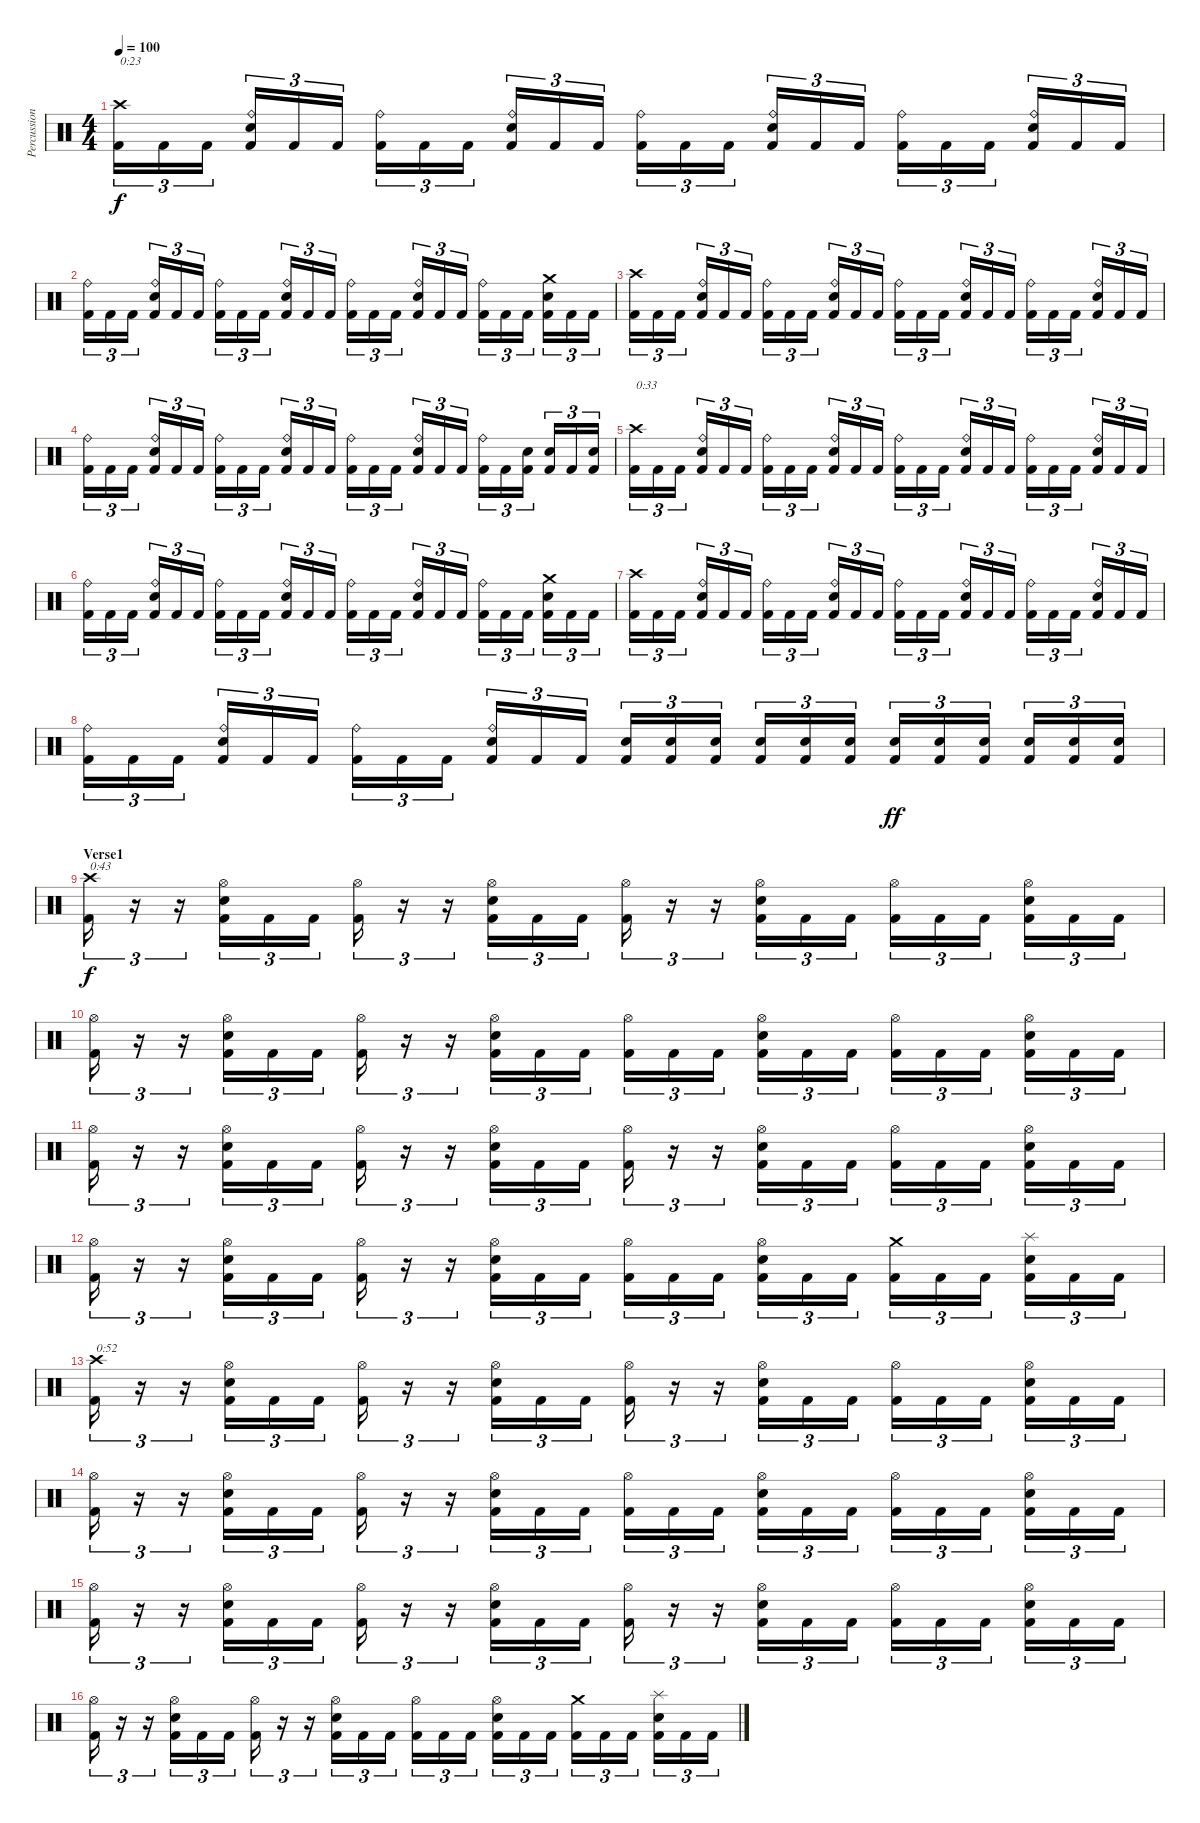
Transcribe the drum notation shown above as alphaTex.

\track ("Percussion" "Percussion") {instrument percussion}
\staff {score}
\articulation defaults
\ts (4 4)
\tempo 100
\clef neutral
\ks c
("Crash high (hit)" "Kick (hit) 2").16{tu (3 2) txt "0:23" dy f} "Kick (hit) 2".16{tu (3 2)} "Kick (hit) 2".16{tu (3 2)} ("Ride (bell)" "Snare (hit) 2" "Kick (hit) 2").16{tu (3 2)} "Kick (hit) 2".16{tu (3 2)} "Kick (hit) 2".16{tu (3 2)} ("Ride (bell)" "Kick (hit) 2").16{tu (3 2)} "Kick (hit) 2".16{tu (3 2)} "Kick (hit) 2".16{tu (3 2)} ("Ride (bell)" "Snare (hit) 2" "Kick (hit) 2").16{tu (3 2)} "Kick (hit) 2".16{tu (3 2)} "Kick (hit) 2".16{tu (3 2)} ("Ride (bell)" "Kick (hit) 2").16{tu (3 2)} "Kick (hit) 2".16{tu (3 2)} "Kick (hit) 2".16{tu (3 2)} ("Ride (bell)" "Snare (hit) 2" "Kick (hit) 2").16{tu (3 2)} "Kick (hit) 2".16{tu (3 2)} "Kick (hit) 2".16{tu (3 2)} ("Ride (bell)" "Kick (hit) 2").16{tu (3 2)} "Kick (hit) 2".16{tu (3 2)} "Kick (hit) 2".16{tu (3 2)} ("Ride (bell)" "Snare (hit) 2" "Kick (hit) 2").16{tu (3 2)} "Kick (hit) 2".16{tu (3 2)} "Kick (hit) 2".16{tu (3 2)} |
("Ride (bell)" "Kick (hit) 2").16{tu (3 2)} "Kick (hit) 2".16{tu (3 2)} "Kick (hit) 2".16{tu (3 2)} ("Ride (bell)" "Snare (hit) 2" "Kick (hit) 2").16{tu (3 2)} "Kick (hit) 2".16{tu (3 2)} "Kick (hit) 2".16{tu (3 2)} ("Ride (bell)" "Kick (hit) 2").16{tu (3 2)} "Kick (hit) 2".16{tu (3 2)} "Kick (hit) 2".16{tu (3 2)} ("Ride (bell)" "Snare (hit) 2" "Kick (hit) 2").16{tu (3 2)} "Kick (hit) 2".16{tu (3 2)} "Kick (hit) 2".16{tu (3 2)} ("Ride (bell)" "Kick (hit) 2").16{tu (3 2)} "Kick (hit) 2".16{tu (3 2)} "Kick (hit) 2".16{tu (3 2)} ("Ride (bell)" "Snare (hit) 2" "Kick (hit) 2").16{tu (3 2)} "Kick (hit) 2".16{tu (3 2)} "Kick (hit) 2".16{tu (3 2)} ("Ride (bell)" "Kick (hit) 2").16{tu (3 2)} "Kick (hit) 2".16{tu (3 2)} "Kick (hit) 2".16{tu (3 2)} ("Crash medium (hit)" "Snare (hit) 2" "Kick (hit) 2").16{tu (3 2)} "Kick (hit) 2".16{tu (3 2)} "Kick (hit) 2".16{tu (3 2)} |
("Crash high (hit)" "Kick (hit) 2").16{tu (3 2)} "Kick (hit) 2".16{tu (3 2)} "Kick (hit) 2".16{tu (3 2)} ("Ride (bell)" "Snare (hit) 2" "Kick (hit) 2").16{tu (3 2)} "Kick (hit) 2".16{tu (3 2)} "Kick (hit) 2".16{tu (3 2)} ("Ride (bell)" "Kick (hit) 2").16{tu (3 2)} "Kick (hit) 2".16{tu (3 2)} "Kick (hit) 2".16{tu (3 2)} ("Ride (bell)" "Snare (hit) 2" "Kick (hit) 2").16{tu (3 2)} "Kick (hit) 2".16{tu (3 2)} "Kick (hit) 2".16{tu (3 2)} ("Ride (bell)" "Kick (hit) 2").16{tu (3 2)} "Kick (hit) 2".16{tu (3 2)} "Kick (hit) 2".16{tu (3 2)} ("Ride (bell)" "Snare (hit) 2" "Kick (hit) 2").16{tu (3 2)} "Kick (hit) 2".16{tu (3 2)} "Kick (hit) 2".16{tu (3 2)} ("Ride (bell)" "Kick (hit) 2").16{tu (3 2)} "Kick (hit) 2".16{tu (3 2)} "Kick (hit) 2".16{tu (3 2)} ("Ride (bell)" "Snare (hit) 2" "Kick (hit) 2").16{tu (3 2)} "Kick (hit) 2".16{tu (3 2)} "Kick (hit) 2".16{tu (3 2)} |
("Ride (bell)" "Kick (hit) 2").16{tu (3 2)} "Kick (hit) 2".16{tu (3 2)} "Kick (hit) 2".16{tu (3 2)} ("Ride (bell)" "Snare (hit) 2" "Kick (hit) 2").16{tu (3 2)} "Kick (hit) 2".16{tu (3 2)} "Kick (hit) 2".16{tu (3 2)} ("Ride (bell)" "Kick (hit) 2").16{tu (3 2)} "Kick (hit) 2".16{tu (3 2)} "Kick (hit) 2".16{tu (3 2)} ("Ride (bell)" "Snare (hit) 2" "Kick (hit) 2").16{tu (3 2)} "Kick (hit) 2".16{tu (3 2)} "Kick (hit) 2".16{tu (3 2)} ("Ride (bell)" "Kick (hit) 2").16{tu (3 2)} "Kick (hit) 2".16{tu (3 2)} "Kick (hit) 2".16{tu (3 2)} ("Ride (bell)" "Snare (hit) 2" "Kick (hit) 2").16{tu (3 2)} "Kick (hit) 2".16{tu (3 2)} "Kick (hit) 2".16{tu (3 2)} ("Ride (bell)" "Kick (hit) 2").16{tu (3 2)} "Kick (hit) 2".16{tu (3 2)} ("Snare (hit) 2" "Kick (hit) 2").16{tu (3 2)} ("Snare (hit) 2" "Kick (hit) 2").16{tu (3 2)} "Kick (hit) 2".16{tu (3 2)} ("Snare (hit) 2" "Kick (hit) 2").16{tu (3 2)} |
("Crash high (hit)" "Kick (hit) 2").16{tu (3 2) txt "0:33"} "Kick (hit) 2".16{tu (3 2)} "Kick (hit) 2".16{tu (3 2)} ("Ride (bell)" "Snare (hit) 2" "Kick (hit) 2").16{tu (3 2)} "Kick (hit) 2".16{tu (3 2)} "Kick (hit) 2".16{tu (3 2)} ("Ride (bell)" "Kick (hit) 2").16{tu (3 2)} "Kick (hit) 2".16{tu (3 2)} "Kick (hit) 2".16{tu (3 2)} ("Ride (bell)" "Snare (hit) 2" "Kick (hit) 2").16{tu (3 2)} "Kick (hit) 2".16{tu (3 2)} "Kick (hit) 2".16{tu (3 2)} ("Ride (bell)" "Kick (hit) 2").16{tu (3 2)} "Kick (hit) 2".16{tu (3 2)} "Kick (hit) 2".16{tu (3 2)} ("Ride (bell)" "Snare (hit) 2" "Kick (hit) 2").16{tu (3 2)} "Kick (hit) 2".16{tu (3 2)} "Kick (hit) 2".16{tu (3 2)} ("Ride (bell)" "Kick (hit) 2").16{tu (3 2)} "Kick (hit) 2".16{tu (3 2)} "Kick (hit) 2".16{tu (3 2)} ("Ride (bell)" "Snare (hit) 2" "Kick (hit) 2").16{tu (3 2)} "Kick (hit) 2".16{tu (3 2)} "Kick (hit) 2".16{tu (3 2)} |
("Ride (bell)" "Kick (hit) 2").16{tu (3 2)} "Kick (hit) 2".16{tu (3 2)} "Kick (hit) 2".16{tu (3 2)} ("Ride (bell)" "Snare (hit) 2" "Kick (hit) 2").16{tu (3 2)} "Kick (hit) 2".16{tu (3 2)} "Kick (hit) 2".16{tu (3 2)} ("Ride (bell)" "Kick (hit) 2").16{tu (3 2)} "Kick (hit) 2".16{tu (3 2)} "Kick (hit) 2".16{tu (3 2)} ("Ride (bell)" "Snare (hit) 2" "Kick (hit) 2").16{tu (3 2)} "Kick (hit) 2".16{tu (3 2)} "Kick (hit) 2".16{tu (3 2)} ("Ride (bell)" "Kick (hit) 2").16{tu (3 2)} "Kick (hit) 2".16{tu (3 2)} "Kick (hit) 2".16{tu (3 2)} ("Ride (bell)" "Snare (hit) 2" "Kick (hit) 2").16{tu (3 2)} "Kick (hit) 2".16{tu (3 2)} "Kick (hit) 2".16{tu (3 2)} ("Ride (bell)" "Kick (hit) 2").16{tu (3 2)} "Kick (hit) 2".16{tu (3 2)} "Kick (hit) 2".16{tu (3 2)} ("Crash medium (hit)" "Snare (hit) 2" "Kick (hit) 2").16{tu (3 2)} "Kick (hit) 2".16{tu (3 2)} "Kick (hit) 2".16{tu (3 2)} |
("Crash high (hit)" "Kick (hit) 2").16{tu (3 2)} "Kick (hit) 2".16{tu (3 2)} "Kick (hit) 2".16{tu (3 2)} ("Ride (bell)" "Snare (hit) 2" "Kick (hit) 2").16{tu (3 2)} "Kick (hit) 2".16{tu (3 2)} "Kick (hit) 2".16{tu (3 2)} ("Ride (bell)" "Kick (hit) 2").16{tu (3 2)} "Kick (hit) 2".16{tu (3 2)} "Kick (hit) 2".16{tu (3 2)} ("Ride (bell)" "Snare (hit) 2" "Kick (hit) 2").16{tu (3 2)} "Kick (hit) 2".16{tu (3 2)} "Kick (hit) 2".16{tu (3 2)} ("Ride (bell)" "Kick (hit) 2").16{tu (3 2)} "Kick (hit) 2".16{tu (3 2)} "Kick (hit) 2".16{tu (3 2)} ("Ride (bell)" "Snare (hit) 2" "Kick (hit) 2").16{tu (3 2)} "Kick (hit) 2".16{tu (3 2)} "Kick (hit) 2".16{tu (3 2)} ("Ride (bell)" "Kick (hit) 2").16{tu (3 2)} "Kick (hit) 2".16{tu (3 2)} "Kick (hit) 2".16{tu (3 2)} ("Ride (bell)" "Snare (hit) 2" "Kick (hit) 2").16{tu (3 2)} "Kick (hit) 2".16{tu (3 2)} "Kick (hit) 2".16{tu (3 2)} |
("Ride (bell)" "Kick (hit) 2").16{tu (3 2)} "Kick (hit) 2".16{tu (3 2)} "Kick (hit) 2".16{tu (3 2)} ("Ride (bell)" "Snare (hit) 2" "Kick (hit) 2").16{tu (3 2)} "Kick (hit) 2".16{tu (3 2)} "Kick (hit) 2".16{tu (3 2)} ("Ride (bell)" "Kick (hit) 2").16{tu (3 2)} "Kick (hit) 2".16{tu (3 2)} "Kick (hit) 2".16{tu (3 2)} ("Ride (bell)" "Snare (hit) 2" "Kick (hit) 2").16{tu (3 2)} "Kick (hit) 2".16{tu (3 2)} "Kick (hit) 2".16{tu (3 2)} ("Snare (hit) 2" "Kick (hit) 2").16{tu (3 2)} ("Snare (hit) 2" "Kick (hit) 2").16{tu (3 2)} ("Snare (hit) 2" "Kick (hit) 2").16{tu (3 2)} ("Snare (hit) 2" "Kick (hit) 2").16{tu (3 2)} ("Snare (hit) 2" "Kick (hit) 2").16{tu (3 2)} ("Snare (hit) 2" "Kick (hit) 2").16{tu (3 2)} ("Snare (hit) 2" "Kick (hit) 2").16{tu (3 2) dy ff} ("Snare (hit) 2" "Kick (hit) 2").16{tu (3 2)} ("Snare (hit) 2" "Kick (hit) 2").16{tu (3 2)} ("Snare (hit) 2" "Kick (hit) 2").16{tu (3 2)} ("Snare (hit) 2" "Kick (hit) 2").16{tu (3 2)} ("Snare (hit) 2" "Kick (hit) 2").16{tu (3 2)} |
\section ("" "Verse1")
("Crash high (hit)" "Kick (hit) 2").16{tu (3 2) txt "0:43" dy f} r.16{tu (3 2)} r.16{tu (3 2)} ("Hi-Hat (open)" "Snare (hit) 2" "Kick (hit) 2").16{tu (3 2)} "Kick (hit) 2".16{tu (3 2)} "Kick (hit) 2".16{tu (3 2)} ("Hi-Hat (open)" "Kick (hit) 2").16{tu (3 2)} r.16{tu (3 2)} r.16{tu (3 2)} ("Hi-Hat (open)" "Snare (hit) 2" "Kick (hit) 2").16{tu (3 2)} "Kick (hit) 2".16{tu (3 2)} "Kick (hit) 2".16{tu (3 2)} ("Hi-Hat (open)" "Kick (hit) 2").16{tu (3 2)} r.16{tu (3 2)} r.16{tu (3 2)} ("Hi-Hat (open)" "Snare (hit) 2" "Kick (hit) 2").16{tu (3 2)} "Kick (hit) 2".16{tu (3 2)} "Kick (hit) 2".16{tu (3 2)} ("Hi-Hat (open)" "Kick (hit) 2").16{tu (3 2)} "Kick (hit) 2".16{tu (3 2)} "Kick (hit) 2".16{tu (3 2)} ("Hi-Hat (open)" "Snare (hit) 2" "Kick (hit) 2").16{tu (3 2)} "Kick (hit) 2".16{tu (3 2)} "Kick (hit) 2".16{tu (3 2)} |
("Hi-Hat (open)" "Kick (hit) 2").16{tu (3 2)} r.16{tu (3 2)} r.16{tu (3 2)} ("Hi-Hat (open)" "Snare (hit) 2" "Kick (hit) 2").16{tu (3 2)} "Kick (hit) 2".16{tu (3 2)} "Kick (hit) 2".16{tu (3 2)} ("Hi-Hat (open)" "Kick (hit) 2").16{tu (3 2)} r.16{tu (3 2)} r.16{tu (3 2)} ("Hi-Hat (open)" "Snare (hit) 2" "Kick (hit) 2").16{tu (3 2)} "Kick (hit) 2".16{tu (3 2)} "Kick (hit) 2".16{tu (3 2)} ("Hi-Hat (open)" "Kick (hit) 2").16{tu (3 2)} "Kick (hit) 2".16{tu (3 2)} "Kick (hit) 2".16{tu (3 2)} ("Hi-Hat (open)" "Snare (hit) 2" "Kick (hit) 2").16{tu (3 2)} "Kick (hit) 2".16{tu (3 2)} "Kick (hit) 2".16{tu (3 2)} ("Hi-Hat (open)" "Kick (hit) 2").16{tu (3 2)} "Kick (hit) 2".16{tu (3 2)} "Kick (hit) 2".16{tu (3 2)} ("Hi-Hat (open)" "Snare (hit) 2" "Kick (hit) 2").16{tu (3 2)} "Kick (hit) 2".16{tu (3 2)} "Kick (hit) 2".16{tu (3 2)} |
("Hi-Hat (open)" "Kick (hit) 2").16{tu (3 2)} r.16{tu (3 2)} r.16{tu (3 2)} ("Hi-Hat (open)" "Snare (hit) 2" "Kick (hit) 2").16{tu (3 2)} "Kick (hit) 2".16{tu (3 2)} "Kick (hit) 2".16{tu (3 2)} ("Hi-Hat (open)" "Kick (hit) 2").16{tu (3 2)} r.16{tu (3 2)} r.16{tu (3 2)} ("Hi-Hat (open)" "Snare (hit) 2" "Kick (hit) 2").16{tu (3 2)} "Kick (hit) 2".16{tu (3 2)} "Kick (hit) 2".16{tu (3 2)} ("Hi-Hat (open)" "Kick (hit) 2").16{tu (3 2)} r.16{tu (3 2)} r.16{tu (3 2)} ("Hi-Hat (open)" "Snare (hit) 2" "Kick (hit) 2").16{tu (3 2)} "Kick (hit) 2".16{tu (3 2)} "Kick (hit) 2".16{tu (3 2)} ("Hi-Hat (open)" "Kick (hit) 2").16{tu (3 2)} "Kick (hit) 2".16{tu (3 2)} "Kick (hit) 2".16{tu (3 2)} ("Hi-Hat (open)" "Snare (hit) 2" "Kick (hit) 2").16{tu (3 2)} "Kick (hit) 2".16{tu (3 2)} "Kick (hit) 2".16{tu (3 2)} |
("Hi-Hat (open)" "Kick (hit) 2").16{tu (3 2)} r.16{tu (3 2)} r.16{tu (3 2)} ("Hi-Hat (open)" "Snare (hit) 2" "Kick (hit) 2").16{tu (3 2)} "Kick (hit) 2".16{tu (3 2)} "Kick (hit) 2".16{tu (3 2)} ("Hi-Hat (open)" "Kick (hit) 2").16{tu (3 2)} r.16{tu (3 2)} r.16{tu (3 2)} ("Hi-Hat (open)" "Snare (hit) 2" "Kick (hit) 2").16{tu (3 2)} "Kick (hit) 2".16{tu (3 2)} "Kick (hit) 2".16{tu (3 2)} ("Hi-Hat (open)" "Kick (hit) 2").16{tu (3 2)} "Kick (hit) 2".16{tu (3 2)} "Kick (hit) 2".16{tu (3 2)} ("Hi-Hat (open)" "Snare (hit) 2" "Kick (hit) 2").16{tu (3 2)} "Kick (hit) 2".16{tu (3 2)} "Kick (hit) 2".16{tu (3 2)} ("Crash medium (hit)" "Kick (hit) 2").16{tu (3 2)} "Kick (hit) 2".16{tu (3 2)} "Kick (hit) 2".16{tu (3 2)} ("Splash (hit)" "Snare (hit) 2" "Kick (hit) 2").16{tu (3 2)} "Kick (hit) 2".16{tu (3 2)} "Kick (hit) 2".16{tu (3 2)} |
("Crash high (hit)" "Kick (hit) 2").16{tu (3 2) txt "0:52"} r.16{tu (3 2)} r.16{tu (3 2)} ("Hi-Hat (open)" "Snare (hit) 2" "Kick (hit) 2").16{tu (3 2)} "Kick (hit) 2".16{tu (3 2)} "Kick (hit) 2".16{tu (3 2)} ("Hi-Hat (open)" "Kick (hit) 2").16{tu (3 2)} r.16{tu (3 2)} r.16{tu (3 2)} ("Hi-Hat (open)" "Snare (hit) 2" "Kick (hit) 2").16{tu (3 2)} "Kick (hit) 2".16{tu (3 2)} "Kick (hit) 2".16{tu (3 2)} ("Hi-Hat (open)" "Kick (hit) 2").16{tu (3 2)} r.16{tu (3 2)} r.16{tu (3 2)} ("Hi-Hat (open)" "Snare (hit) 2" "Kick (hit) 2").16{tu (3 2)} "Kick (hit) 2".16{tu (3 2)} "Kick (hit) 2".16{tu (3 2)} ("Hi-Hat (open)" "Kick (hit) 2").16{tu (3 2)} "Kick (hit) 2".16{tu (3 2)} "Kick (hit) 2".16{tu (3 2)} ("Hi-Hat (open)" "Snare (hit) 2" "Kick (hit) 2").16{tu (3 2)} "Kick (hit) 2".16{tu (3 2)} "Kick (hit) 2".16{tu (3 2)} |
("Hi-Hat (open)" "Kick (hit) 2").16{tu (3 2)} r.16{tu (3 2)} r.16{tu (3 2)} ("Hi-Hat (open)" "Snare (hit) 2" "Kick (hit) 2").16{tu (3 2)} "Kick (hit) 2".16{tu (3 2)} "Kick (hit) 2".16{tu (3 2)} ("Hi-Hat (open)" "Kick (hit) 2").16{tu (3 2)} r.16{tu (3 2)} r.16{tu (3 2)} ("Hi-Hat (open)" "Snare (hit) 2" "Kick (hit) 2").16{tu (3 2)} "Kick (hit) 2".16{tu (3 2)} "Kick (hit) 2".16{tu (3 2)} ("Hi-Hat (open)" "Kick (hit) 2").16{tu (3 2)} "Kick (hit) 2".16{tu (3 2)} "Kick (hit) 2".16{tu (3 2)} ("Hi-Hat (open)" "Snare (hit) 2" "Kick (hit) 2").16{tu (3 2)} "Kick (hit) 2".16{tu (3 2)} "Kick (hit) 2".16{tu (3 2)} ("Hi-Hat (open)" "Kick (hit) 2").16{tu (3 2)} "Kick (hit) 2".16{tu (3 2)} "Kick (hit) 2".16{tu (3 2)} ("Hi-Hat (open)" "Snare (hit) 2" "Kick (hit) 2").16{tu (3 2)} "Kick (hit) 2".16{tu (3 2)} "Kick (hit) 2".16{tu (3 2)} |
("Hi-Hat (open)" "Kick (hit) 2").16{tu (3 2)} r.16{tu (3 2)} r.16{tu (3 2)} ("Hi-Hat (open)" "Snare (hit) 2" "Kick (hit) 2").16{tu (3 2)} "Kick (hit) 2".16{tu (3 2)} "Kick (hit) 2".16{tu (3 2)} ("Hi-Hat (open)" "Kick (hit) 2").16{tu (3 2)} r.16{tu (3 2)} r.16{tu (3 2)} ("Hi-Hat (open)" "Snare (hit) 2" "Kick (hit) 2").16{tu (3 2)} "Kick (hit) 2".16{tu (3 2)} "Kick (hit) 2".16{tu (3 2)} ("Hi-Hat (open)" "Kick (hit) 2").16{tu (3 2)} r.16{tu (3 2)} r.16{tu (3 2)} ("Hi-Hat (open)" "Snare (hit) 2" "Kick (hit) 2").16{tu (3 2)} "Kick (hit) 2".16{tu (3 2)} "Kick (hit) 2".16{tu (3 2)} ("Hi-Hat (open)" "Kick (hit) 2").16{tu (3 2)} "Kick (hit) 2".16{tu (3 2)} "Kick (hit) 2".16{tu (3 2)} ("Hi-Hat (open)" "Snare (hit) 2" "Kick (hit) 2").16{tu (3 2)} "Kick (hit) 2".16{tu (3 2)} "Kick (hit) 2".16{tu (3 2)} |
("Hi-Hat (open)" "Kick (hit) 2").16{tu (3 2)} r.16{tu (3 2)} r.16{tu (3 2)} ("Hi-Hat (open)" "Snare (hit) 2" "Kick (hit) 2").16{tu (3 2)} "Kick (hit) 2".16{tu (3 2)} "Kick (hit) 2".16{tu (3 2)} ("Hi-Hat (open)" "Kick (hit) 2").16{tu (3 2)} r.16{tu (3 2)} r.16{tu (3 2)} ("Hi-Hat (open)" "Snare (hit) 2" "Kick (hit) 2").16{tu (3 2)} "Kick (hit) 2".16{tu (3 2)} "Kick (hit) 2".16{tu (3 2)} ("Hi-Hat (open)" "Kick (hit) 2").16{tu (3 2)} "Kick (hit) 2".16{tu (3 2)} "Kick (hit) 2".16{tu (3 2)} ("Hi-Hat (open)" "Snare (hit) 2" "Kick (hit) 2").16{tu (3 2)} "Kick (hit) 2".16{tu (3 2)} "Kick (hit) 2".16{tu (3 2)} ("Crash medium (hit)" "Kick (hit) 2").16{tu (3 2)} "Kick (hit) 2".16{tu (3 2)} "Kick (hit) 2".16{tu (3 2)} ("Splash (hit)" "Snare (hit) 2" "Kick (hit) 2").16{tu (3 2)} "Kick (hit) 2".16{tu (3 2)} "Kick (hit) 2".16{tu (3 2)}
